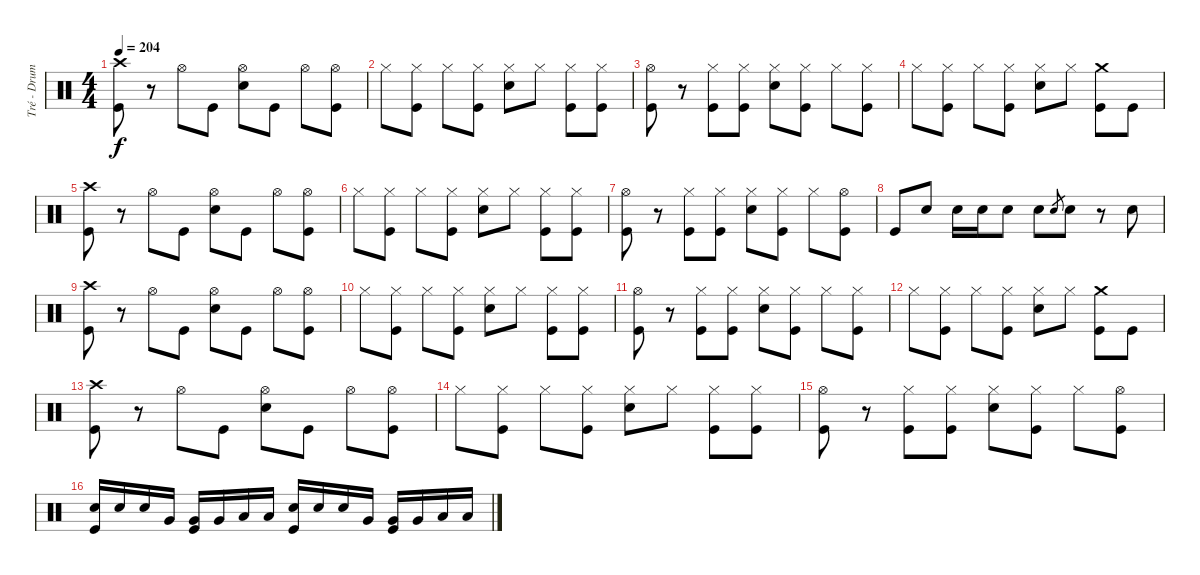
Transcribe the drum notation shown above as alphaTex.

\track ("Tré - Drums" "Tré - Drum") {instrument percussion}
\staff {score}
\articulation defaults
\ts (4 4)
\tempo 204
\clef neutral
\ks c
("Crash high (hit)" "Kick (hit)").8{dy f} r.8 "Hi-Hat (open)".8 "Kick (hit)".8 ("Hi-Hat (open)" "Electric Snare (hit)").8 "Kick (hit)".8 "Hi-Hat (open)".8 ("Hi-Hat (open)" "Kick (hit)").8 |
"Hi-Hat (closed)".8 ("Hi-Hat (closed)" "Kick (hit)").8 "Hi-Hat (closed)".8 ("Hi-Hat (closed)" "Kick (hit)").8 ("Hi-Hat (closed)" "Electric Snare (hit)").8 "Hi-Hat (closed)".8 ("Hi-Hat (closed)" "Kick (hit)").8 ("Hi-Hat (closed)" "Kick (hit)").8 |
("Hi-Hat (open)" "Kick (hit)").8 r.8 ("Hi-Hat (closed)" "Kick (hit)").8 ("Hi-Hat (closed)" "Kick (hit)").8 ("Hi-Hat (closed)" "Electric Snare (hit)").8 ("Hi-Hat (closed)" "Kick (hit)").8 "Hi-Hat (closed)".8 ("Hi-Hat (closed)" "Kick (hit)").8 |
"Hi-Hat (closed)".8 ("Hi-Hat (closed)" "Kick (hit)").8 "Hi-Hat (closed)".8 ("Hi-Hat (closed)" "Kick (hit)").8 ("Hi-Hat (closed)" "Electric Snare (hit)").8 "Hi-Hat (closed)".8 ("Crash medium (hit)" "Kick (hit)").8 "Kick (hit)".8 |
("Crash high (hit)" "Kick (hit)").8 r.8 "Hi-Hat (open)".8 "Kick (hit)".8 ("Hi-Hat (open)" "Electric Snare (hit)").8 "Kick (hit)".8 "Hi-Hat (open)".8 ("Hi-Hat (open)" "Kick (hit)").8 |
"Hi-Hat (closed)".8 ("Hi-Hat (closed)" "Kick (hit)").8 "Hi-Hat (closed)".8 ("Hi-Hat (closed)" "Kick (hit)").8 ("Hi-Hat (closed)" "Electric Snare (hit)").8 "Hi-Hat (closed)".8 ("Hi-Hat (closed)" "Kick (hit)").8 ("Hi-Hat (closed)" "Kick (hit)").8 |
("Hi-Hat (open)" "Kick (hit)").8 r.8 ("Hi-Hat (closed)" "Kick (hit)").8 ("Hi-Hat (closed)" "Kick (hit)").8 ("Hi-Hat (closed)" "Electric Snare (hit)").8 ("Hi-Hat (closed)" "Kick (hit)").8 "Hi-Hat (closed)".8 ("Hi-Hat (open)" "Kick (hit)").8 |
"Kick (hit)".8 "Electric Snare (hit)".8 "Electric Snare (hit)".16 "Electric Snare (hit)".16 "Electric Snare (hit)".8 "Electric Snare (hit)".8 "Electric Snare (hit)".8{gr} "Electric Snare (hit)".8 r.8 "Electric Snare (hit)".8 |
("Crash high (hit)" "Kick (hit)").8 r.8 "Hi-Hat (open)".8 "Kick (hit)".8 ("Hi-Hat (open)" "Electric Snare (hit)").8 "Kick (hit)".8 "Hi-Hat (open)".8 ("Hi-Hat (open)" "Kick (hit)").8 |
"Hi-Hat (closed)".8 ("Hi-Hat (closed)" "Kick (hit)").8 "Hi-Hat (closed)".8 ("Hi-Hat (closed)" "Kick (hit)").8 ("Hi-Hat (closed)" "Electric Snare (hit)").8 "Hi-Hat (closed)".8 ("Hi-Hat (closed)" "Kick (hit)").8 ("Hi-Hat (closed)" "Kick (hit)").8 |
("Hi-Hat (open)" "Kick (hit)").8 r.8 ("Hi-Hat (closed)" "Kick (hit)").8 ("Hi-Hat (closed)" "Kick (hit)").8 ("Hi-Hat (closed)" "Electric Snare (hit)").8 ("Hi-Hat (closed)" "Kick (hit)").8 "Hi-Hat (closed)".8 ("Hi-Hat (closed)" "Kick (hit)").8 |
"Hi-Hat (closed)".8 ("Hi-Hat (closed)" "Kick (hit)").8 "Hi-Hat (closed)".8 ("Hi-Hat (closed)" "Kick (hit)").8 ("Hi-Hat (closed)" "Electric Snare (hit)").8 "Hi-Hat (closed)".8 ("Crash medium (hit)" "Kick (hit)").8 "Kick (hit)".8 |
("Crash high (hit)" "Kick (hit)").8 r.8 "Hi-Hat (open)".8 "Kick (hit)".8 ("Hi-Hat (open)" "Electric Snare (hit)").8 "Kick (hit)".8 "Hi-Hat (open)".8 ("Hi-Hat (open)" "Kick (hit)").8 |
"Hi-Hat (closed)".8 ("Hi-Hat (closed)" "Kick (hit)").8 "Hi-Hat (closed)".8 ("Hi-Hat (closed)" "Kick (hit)").8 ("Hi-Hat (closed)" "Electric Snare (hit)").8 "Hi-Hat (closed)".8 ("Hi-Hat (closed)" "Kick (hit)").8 ("Hi-Hat (closed)" "Kick (hit)").8 |
("Hi-Hat (open)" "Kick (hit)").8 r.8 ("Hi-Hat (closed)" "Kick (hit)").8 ("Hi-Hat (closed)" "Kick (hit)").8 ("Hi-Hat (closed)" "Electric Snare (hit)").8 ("Hi-Hat (closed)" "Kick (hit)").8 "Hi-Hat (closed)".8 ("Hi-Hat (open)" "Kick (hit)").8 |
("Electric Snare (hit)" "Kick (hit)").16 "Electric Snare (hit)".16 "Electric Snare (hit)".16 "Very Low Tom (hit)".16 ("Very Low Tom (hit)" "Kick (hit)").16 "Very Low Tom (hit)".16 "Low Floor Tom (hit)".16 "Low Floor Tom (hit)".16 ("Electric Snare (hit)" "Kick (hit)").16 "Electric Snare (hit)".16 "Electric Snare (hit)".16 "Very Low Tom (hit)".16 ("Very Low Tom (hit)" "Kick (hit)").16 "Very Low Tom (hit)".16 "Low Floor Tom (hit)".16 "Low Floor Tom (hit)".16
